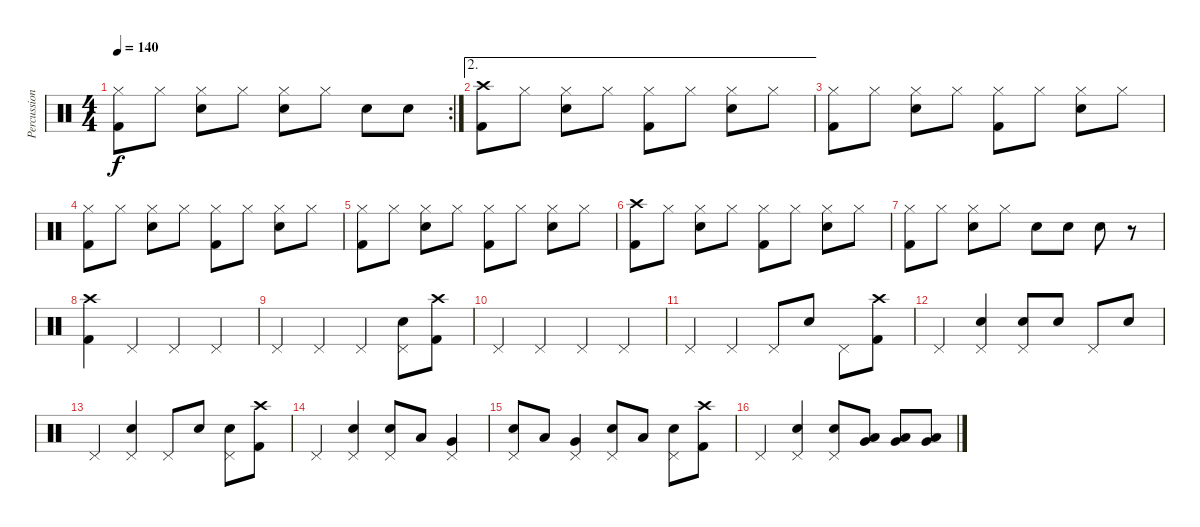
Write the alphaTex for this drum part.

\track ("Percussion" "Percussion") {instrument percussion}
\staff {score}
\articulation defaults
\rc 2
\ts (4 4)
\tempo 140
\clef neutral
\ks c
("Hi-Hat (closed)" "Kick (hit) 2").8{dy f} "Hi-Hat (closed)".8 ("Hi-Hat (closed)" "Snare (hit) 2").8 "Hi-Hat (closed)".8 ("Hi-Hat (closed)" "Snare (hit) 2").8 "Hi-Hat (closed)".8 "Snare (hit) 2".8 "Snare (hit) 2".8 |
\ae 2
("Crash high (hit)" "Kick (hit) 2").8 "Hi-Hat (closed)".8 ("Hi-Hat (closed)" "Snare (hit) 2").8 "Hi-Hat (closed)".8 ("Hi-Hat (closed)" "Kick (hit) 2").8 "Hi-Hat (closed)".8 ("Hi-Hat (closed)" "Snare (hit) 2").8 "Hi-Hat (closed)".8 |
("Hi-Hat (closed)" "Kick (hit) 2").8 "Hi-Hat (closed)".8 ("Hi-Hat (closed)" "Snare (hit) 2").8 "Hi-Hat (closed)".8 ("Hi-Hat (closed)" "Kick (hit) 2").8 "Hi-Hat (closed)".8 ("Hi-Hat (closed)" "Snare (hit) 2").8 "Hi-Hat (closed)".8 |
("Hi-Hat (closed)" "Kick (hit) 2").8 "Hi-Hat (closed)".8 ("Hi-Hat (closed)" "Snare (hit) 2").8 "Hi-Hat (closed)".8 ("Hi-Hat (closed)" "Kick (hit) 2").8 "Hi-Hat (closed)".8 ("Hi-Hat (closed)" "Snare (hit) 2").8 "Hi-Hat (closed)".8 |
("Hi-Hat (closed)" "Kick (hit) 2").8 "Hi-Hat (closed)".8 ("Hi-Hat (closed)" "Snare (hit) 2").8 "Hi-Hat (closed)".8 ("Hi-Hat (closed)" "Kick (hit) 2").8 "Hi-Hat (closed)".8 ("Hi-Hat (closed)" "Snare (hit) 2").8 "Hi-Hat (closed)".8 |
("Crash high (hit)" "Kick (hit) 2").8 "Hi-Hat (closed)".8 ("Hi-Hat (closed)" "Snare (hit) 2").8 "Hi-Hat (closed)".8 ("Hi-Hat (closed)" "Kick (hit) 2").8 "Hi-Hat (closed)".8 ("Hi-Hat (closed)" "Snare (hit) 2").8 "Hi-Hat (closed)".8 |
("Hi-Hat (closed)" "Kick (hit) 2").8 "Hi-Hat (closed)".8 ("Hi-Hat (closed)" "Snare (hit) 2").8 "Hi-Hat (closed)".8 "Snare (hit) 2".8 "Snare (hit) 2".8 "Snare (hit) 2".8 r.8 |
("Crash high (hit)" "Kick (hit) 2").4 "Pedal Hi-Hat (hit)".4 "Pedal Hi-Hat (hit)".4 "Pedal Hi-Hat (hit)".4 |
"Pedal Hi-Hat (hit)".4 "Pedal Hi-Hat (hit)".4 "Pedal Hi-Hat (hit)".4 ("Pedal Hi-Hat (hit)" "Snare (hit) 2").8 ("Crash high (hit)" "Kick (hit) 2").8 |
"Pedal Hi-Hat (hit)".4 "Pedal Hi-Hat (hit)".4 "Pedal Hi-Hat (hit)".4 "Pedal Hi-Hat (hit)".4 |
"Pedal Hi-Hat (hit)".4 "Pedal Hi-Hat (hit)".4 "Pedal Hi-Hat (hit)".8 "Snare (hit) 2".8 "Pedal Hi-Hat (hit)".8 ("Crash high (hit)" "Kick (hit) 2").8 |
"Pedal Hi-Hat (hit)".4 ("Pedal Hi-Hat (hit)" "Snare (hit) 2").4 ("Pedal Hi-Hat (hit)" "Snare (hit) 2").8 "Snare (hit) 2".8 "Pedal Hi-Hat (hit)".8 "Snare (hit) 2".8 |
"Pedal Hi-Hat (hit)".4 ("Pedal Hi-Hat (hit)" "Snare (hit) 2").4 "Pedal Hi-Hat (hit)".8 "Snare (hit) 2".8 ("Pedal Hi-Hat (hit)" "Snare (hit) 2").8 ("Crash high (hit)" "Kick (hit) 2").8 |
"Pedal Hi-Hat (hit)".4 ("Pedal Hi-Hat (hit)" "Snare (hit) 2").4 ("Pedal Hi-Hat (hit)" "Snare (hit) 2").8 "Low Tom (hit)".8 ("Very Low Tom (hit)" "Pedal Hi-Hat (hit)").4 |
("Pedal Hi-Hat (hit)" "Snare (hit) 2").8 "Low Tom (hit)".8 ("Very Low Tom (hit)" "Pedal Hi-Hat (hit)").4 ("Pedal Hi-Hat (hit)" "Snare (hit) 2").8 "Low Tom (hit)".8 ("Pedal Hi-Hat (hit)" "Snare (hit) 2").8 ("Crash high (hit)" "Kick (hit) 2").8 |
"Pedal Hi-Hat (hit)".4 ("Pedal Hi-Hat (hit)" "Snare (hit) 2").4 ("Pedal Hi-Hat (hit)" "Snare (hit) 2").8 ("Very Low Tom (hit)" "Low Tom (hit)").8 ("Very Low Tom (hit)" "Low Tom (hit)").8 ("Very Low Tom (hit)" "Low Tom (hit)").8
